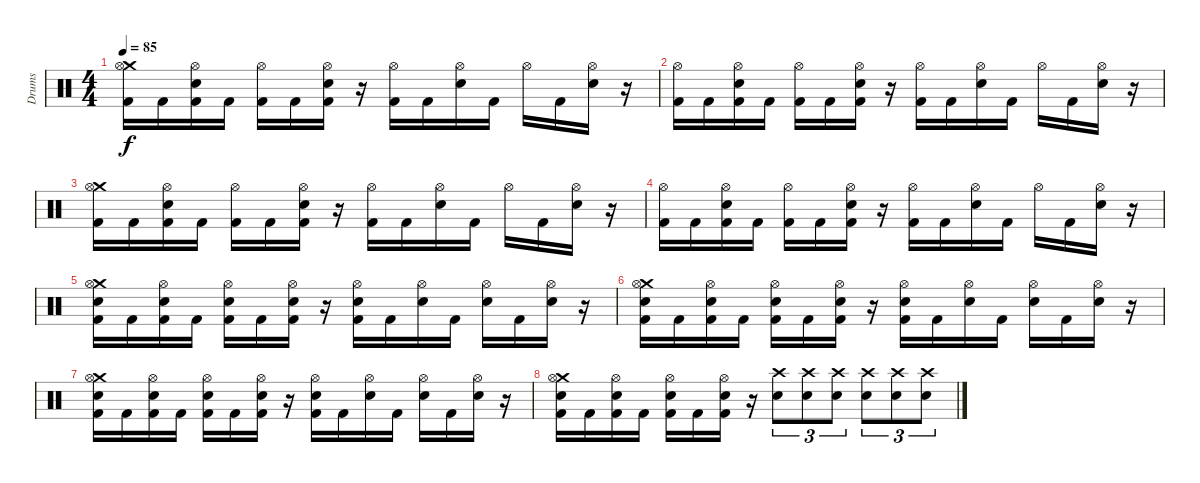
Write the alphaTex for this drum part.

\track ("Drums" "Drums") {instrument percussion}
\staff {score}
\articulation defaults
\ts (4 4)
\tempo 85
\clef neutral
\ks c
("Crash medium (hit)" "Hi-Hat (open)" "Kick (hit) 2").16{dy f} "Kick (hit) 2".16 ("Hi-Hat (open)" "Electric Snare (hit)" "Kick (hit) 2").16 "Kick (hit) 2".16 ("Hi-Hat (open)" "Kick (hit) 2").16 "Kick (hit) 2".16 ("Hi-Hat (open)" "Electric Snare (hit)" "Kick (hit) 2").16 r.16 ("Hi-Hat (open)" "Kick (hit) 2").16 "Kick (hit) 2".16 ("Hi-Hat (open)" "Electric Snare (hit)").16 "Kick (hit) 2".16 "Hi-Hat (open)".16 "Kick (hit) 2".16 ("Hi-Hat (open)" "Electric Snare (hit)").16 r.16 |
("Hi-Hat (open)" "Kick (hit) 2").16 "Kick (hit) 2".16 ("Hi-Hat (open)" "Electric Snare (hit)" "Kick (hit) 2").16 "Kick (hit) 2".16 ("Hi-Hat (open)" "Kick (hit) 2").16 "Kick (hit) 2".16 ("Hi-Hat (open)" "Electric Snare (hit)" "Kick (hit) 2").16 r.16 ("Hi-Hat (open)" "Kick (hit) 2").16 "Kick (hit) 2".16 ("Hi-Hat (open)" "Electric Snare (hit)").16 "Kick (hit) 2".16 "Hi-Hat (open)".16 "Kick (hit) 2".16 ("Hi-Hat (open)" "Electric Snare (hit)").16 r.16 |
("Crash medium (hit)" "Hi-Hat (open)" "Kick (hit) 2").16 "Kick (hit) 2".16 ("Hi-Hat (open)" "Electric Snare (hit)" "Kick (hit) 2").16 "Kick (hit) 2".16 ("Hi-Hat (open)" "Kick (hit) 2").16 "Kick (hit) 2".16 ("Hi-Hat (open)" "Electric Snare (hit)" "Kick (hit) 2").16 r.16 ("Hi-Hat (open)" "Kick (hit) 2").16 "Kick (hit) 2".16 ("Hi-Hat (open)" "Electric Snare (hit)").16 "Kick (hit) 2".16 "Hi-Hat (open)".16 "Kick (hit) 2".16 ("Hi-Hat (open)" "Electric Snare (hit)").16 r.16 |
("Hi-Hat (open)" "Kick (hit) 2").16 "Kick (hit) 2".16 ("Hi-Hat (open)" "Electric Snare (hit)" "Kick (hit) 2").16 "Kick (hit) 2".16 ("Hi-Hat (open)" "Kick (hit) 2").16 "Kick (hit) 2".16 ("Hi-Hat (open)" "Electric Snare (hit)" "Kick (hit) 2").16 r.16 ("Hi-Hat (open)" "Kick (hit) 2").16 "Kick (hit) 2".16 ("Hi-Hat (open)" "Electric Snare (hit)").16 "Kick (hit) 2".16 "Hi-Hat (open)".16 "Kick (hit) 2".16 ("Hi-Hat (open)" "Electric Snare (hit)").16 r.16 |
("Crash medium (hit)" "Hi-Hat (open)" "Electric Snare (hit)" "Kick (hit) 2").16 "Kick (hit) 2".16 ("Hi-Hat (open)" "Electric Snare (hit)" "Kick (hit) 2").16 "Kick (hit) 2".16 ("Hi-Hat (open)" "Electric Snare (hit)" "Kick (hit) 2").16 "Kick (hit) 2".16 ("Hi-Hat (open)" "Electric Snare (hit)" "Kick (hit) 2").16 r.16 ("Hi-Hat (open)" "Electric Snare (hit)" "Kick (hit) 2").16 "Kick (hit) 2".16 ("Hi-Hat (open)" "Electric Snare (hit)").16 "Kick (hit) 2".16 ("Hi-Hat (open)" "Electric Snare (hit)").16 "Kick (hit) 2".16 ("Hi-Hat (open)" "Electric Snare (hit)").16 r.16 |
("Crash medium (hit)" "Hi-Hat (open)" "Electric Snare (hit)" "Kick (hit) 2").16 "Kick (hit) 2".16 ("Hi-Hat (open)" "Electric Snare (hit)" "Kick (hit) 2").16 "Kick (hit) 2".16 ("Hi-Hat (open)" "Electric Snare (hit)" "Kick (hit) 2").16 "Kick (hit) 2".16 ("Hi-Hat (open)" "Electric Snare (hit)" "Kick (hit) 2").16 r.16 ("Hi-Hat (open)" "Electric Snare (hit)" "Kick (hit) 2").16 "Kick (hit) 2".16 ("Hi-Hat (open)" "Electric Snare (hit)").16 "Kick (hit) 2".16 ("Hi-Hat (open)" "Electric Snare (hit)").16 "Kick (hit) 2".16 ("Hi-Hat (open)" "Electric Snare (hit)").16 r.16 |
("Crash medium (hit)" "Hi-Hat (open)" "Electric Snare (hit)" "Kick (hit) 2").16 "Kick (hit) 2".16 ("Hi-Hat (open)" "Electric Snare (hit)" "Kick (hit) 2").16 "Kick (hit) 2".16 ("Hi-Hat (open)" "Electric Snare (hit)" "Kick (hit) 2").16 "Kick (hit) 2".16 ("Hi-Hat (open)" "Electric Snare (hit)" "Kick (hit) 2").16 r.16 ("Hi-Hat (open)" "Electric Snare (hit)" "Kick (hit) 2").16 "Kick (hit) 2".16 ("Hi-Hat (open)" "Electric Snare (hit)").16 "Kick (hit) 2".16 ("Hi-Hat (open)" "Electric Snare (hit)").16 "Kick (hit) 2".16 ("Hi-Hat (open)" "Electric Snare (hit)").16 r.16 |
("Crash medium (hit)" "Hi-Hat (open)" "Electric Snare (hit)" "Kick (hit) 2").16 "Kick (hit) 2".16 ("Hi-Hat (open)" "Electric Snare (hit)" "Kick (hit) 2").16 "Kick (hit) 2".16 ("Hi-Hat (open)" "Electric Snare (hit)" "Kick (hit) 2").16 "Kick (hit) 2".16 ("Hi-Hat (open)" "Electric Snare (hit)" "Kick (hit) 2").16 r.16 ("Crash high (hit)" "Electric Snare (hit)").8{tu (3 2)} ("Crash high (hit)" "Electric Snare (hit)").8{tu (3 2)} ("Crash high (hit)" "Electric Snare (hit)").8{tu (3 2)} ("Crash high (hit)" "Electric Snare (hit)").8{tu (3 2)} ("Crash high (hit)" "Electric Snare (hit)").8{tu (3 2)} ("Crash high (hit)" "Electric Snare (hit)").8{tu (3 2)}
